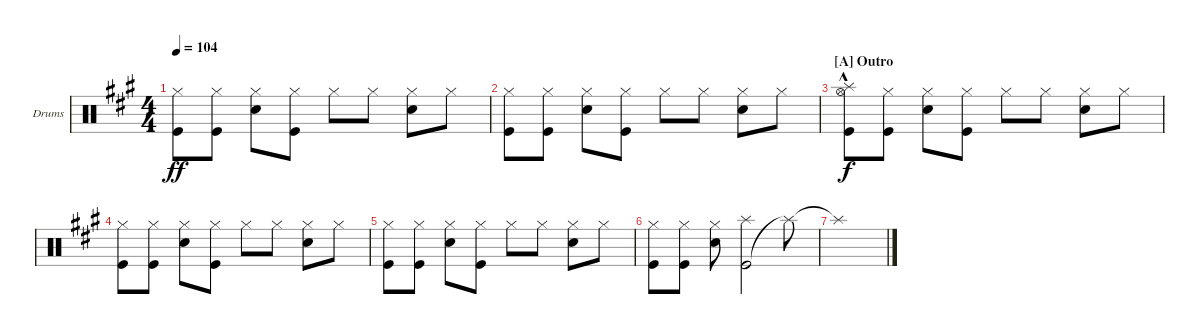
\defaultSystemsLayout 4
\bracketExtendMode groupsimilarinstruments
\firstSystemTrackNameOrientation horizontal
\otherSystemsTrackNameOrientation horizontal
\track ("Drumkit" "Drums") {instrument percussion}
\staff {score}
\articulation defaults
\ts (4 4)
\tempo 104
\clef neutral
\ks a
("Hi-Hat (closed)" "Kick (hit)").8{dy ff} ("Hi-Hat (closed)" "Kick (hit)").8 ("Hi-Hat (closed)" "Snare (hit) 2").8 ("Hi-Hat (closed)" "Kick (hit)").8 "Hi-Hat (closed)".8 "Hi-Hat (closed)".8 ("Hi-Hat (closed)" "Snare (hit) 2").8 "Hi-Hat (closed)".8 |
("Hi-Hat (closed)" "Kick (hit)").8 ("Hi-Hat (closed)" "Kick (hit)").8 ("Hi-Hat (closed)" "Snare (hit) 2").8 ("Hi-Hat (closed)" "Kick (hit)").8 "Hi-Hat (closed)".8 "Hi-Hat (closed)".8 ("Hi-Hat (closed)" "Snare (hit) 2").8 "Hi-Hat (closed)".8 |
\section ("A" "Outro")
("Hi-Hat (open)" "Kick (hit)" "Splash (hit)"{hac}).8{dy f} ("Hi-Hat (closed)" "Kick (hit)").8 ("Hi-Hat (closed)" "Snare (hit) 2").8 ("Hi-Hat (closed)" "Kick (hit)").8 "Hi-Hat (closed)".8 "Hi-Hat (closed)".8 ("Hi-Hat (closed)" "Snare (hit) 2").8 "Hi-Hat (closed)".8 |
("Hi-Hat (closed)" "Kick (hit)").8 ("Hi-Hat (closed)" "Kick (hit)").8 ("Hi-Hat (closed)" "Snare (hit) 2").8 ("Hi-Hat (closed)" "Kick (hit)").8 "Hi-Hat (closed)".8 "Hi-Hat (closed)".8 ("Hi-Hat (closed)" "Snare (hit) 2").8 "Hi-Hat (closed)".8 |
("Hi-Hat (closed)" "Kick (hit)").8 ("Hi-Hat (closed)" "Kick (hit)").8 ("Hi-Hat (closed)" "Snare (hit) 2").8 ("Hi-Hat (closed)" "Kick (hit)").8 "Hi-Hat (closed)".8 "Hi-Hat (closed)".8 ("Hi-Hat (closed)" "Snare (hit) 2").8 "Hi-Hat (closed)".8 |
("Hi-Hat (closed)" "Kick (hit)").8 ("Hi-Hat (closed)" "Kick (hit)").8 ("Hi-Hat (closed)" "Snare (hit) 2").8 ("Kick (hit)" "Splash (hit)").2 "Splash (hit)"{t}.8 |
\scale
0.333333 "Splash (hit)"{t}.1
